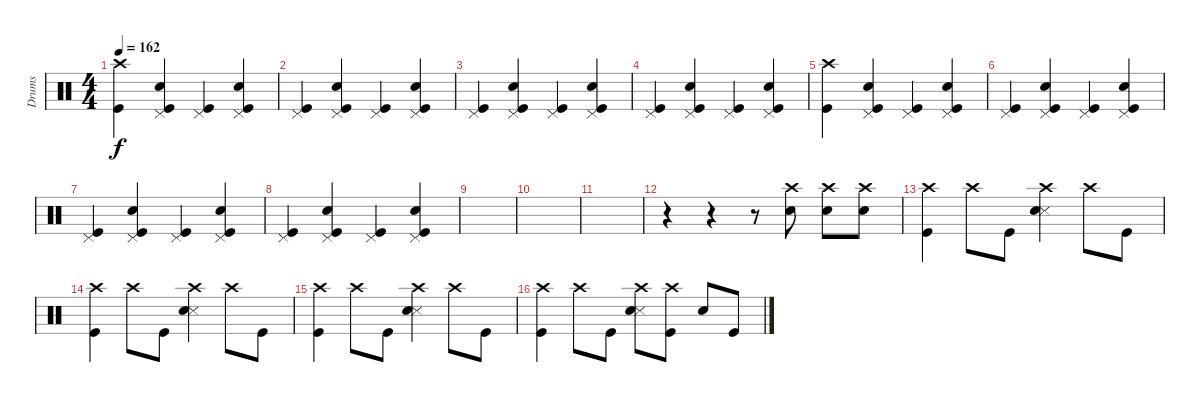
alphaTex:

\track ("Drums" "Drums") {instrument percussion}
\staff {score}
\articulation defaults
\ts (4 4)
\tempo 162
\clef neutral
\ks c
("Kick (hit)" "Crash high (hit)").4{dy f} ("Kick (hit)" "Snare (hit) 2" "Pedal Hi-Hat (hit)").4 ("Kick (hit)" "Pedal Hi-Hat (hit)").4 ("Kick (hit)" "Snare (hit) 2" "Pedal Hi-Hat (hit)").4 |
("Kick (hit)" "Pedal Hi-Hat (hit)").4 ("Kick (hit)" "Snare (hit) 2" "Pedal Hi-Hat (hit)").4 ("Kick (hit)" "Pedal Hi-Hat (hit)").4 ("Kick (hit)" "Snare (hit) 2" "Pedal Hi-Hat (hit)").4 |
("Kick (hit)" "Pedal Hi-Hat (hit)").4 ("Kick (hit)" "Snare (hit) 2" "Pedal Hi-Hat (hit)").4 ("Kick (hit)" "Pedal Hi-Hat (hit)").4 ("Kick (hit)" "Snare (hit) 2" "Pedal Hi-Hat (hit)").4 |
("Kick (hit)" "Pedal Hi-Hat (hit)").4 ("Kick (hit)" "Snare (hit) 2" "Pedal Hi-Hat (hit)").4 ("Kick (hit)" "Pedal Hi-Hat (hit)").4 ("Kick (hit)" "Snare (hit) 2" "Pedal Hi-Hat (hit)").4 |
("Kick (hit)" "Crash high (hit)").4 ("Kick (hit)" "Snare (hit) 2" "Pedal Hi-Hat (hit)").4 ("Kick (hit)" "Pedal Hi-Hat (hit)").4 ("Kick (hit)" "Snare (hit) 2" "Pedal Hi-Hat (hit)").4 |
("Kick (hit)" "Pedal Hi-Hat (hit)").4 ("Kick (hit)" "Snare (hit) 2" "Pedal Hi-Hat (hit)").4 ("Kick (hit)" "Pedal Hi-Hat (hit)").4 ("Kick (hit)" "Snare (hit) 2" "Pedal Hi-Hat (hit)").4 |
("Kick (hit)" "Pedal Hi-Hat (hit)").4 ("Kick (hit)" "Snare (hit) 2" "Pedal Hi-Hat (hit)").4 ("Kick (hit)" "Pedal Hi-Hat (hit)").4 ("Kick (hit)" "Snare (hit) 2" "Pedal Hi-Hat (hit)").4 |
("Kick (hit)" "Pedal Hi-Hat (hit)").4 ("Kick (hit)" "Snare (hit) 2" "Pedal Hi-Hat (hit)").4 ("Kick (hit)" "Pedal Hi-Hat (hit)").4 ("Kick (hit)" "Snare (hit) 2" "Pedal Hi-Hat (hit)").4 |
|
|
|
r.4 r.4 r.8 ("Snare (hit) 2" "Crash high (hit)").8 ("Snare (hit) 2" "Crash high (hit)").8 ("Snare (hit) 2" "Crash high (hit)").8 |
("Kick (hit)" "Crash high (hit)").4 "Crash high (hit)".8 "Kick (hit)".8 ("Metronome (hit)" "Snare (hit) 2" "Crash high (hit)").4 "Crash high (hit)".8 "Kick (hit)".8 |
("Kick (hit)" "Crash high (hit)").4 "Crash high (hit)".8 "Kick (hit)".8 ("Metronome (hit)" "Snare (hit) 2" "Crash high (hit)").4 "Crash high (hit)".8 "Kick (hit)".8 |
("Kick (hit)" "Crash high (hit)").4 "Crash high (hit)".8 "Kick (hit)".8 ("Metronome (hit)" "Snare (hit) 2" "Crash high (hit)").4 "Crash high (hit)".8 "Kick (hit)".8 |
("Kick (hit)" "Crash high (hit)").4 "Crash high (hit)".8 "Kick (hit)".8 ("Metronome (hit)" "Snare (hit) 2" "Crash high (hit)").8 ("Kick (hit)" "Crash high (hit)").8 "Snare (hit) 2".8 "Kick (hit)".8
